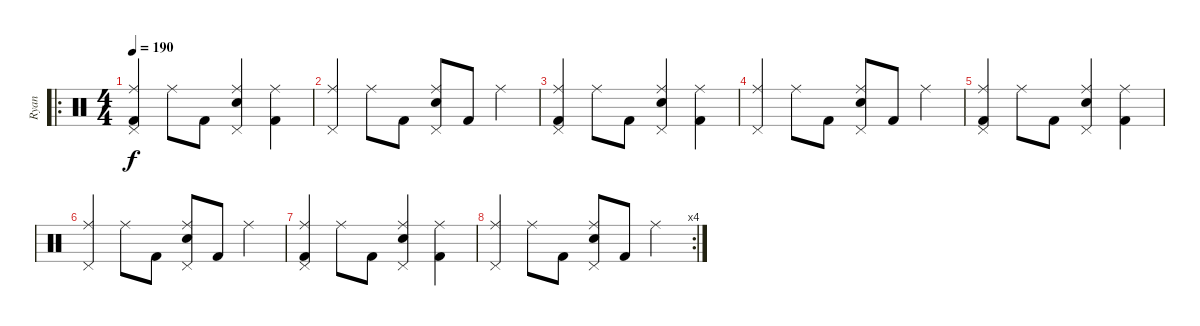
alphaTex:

\track ("Ryan" "Ryan") {instrument percussion}
\staff {score}
\articulation defaults
\ro
\ts (4 4)
\tempo 190
\clef neutral
\ks c
("Pedal Hi-Hat (hit)" "Ride (middle)" "Kick (hit) 2").4{dy f} "Ride (middle)".8 "Kick (hit) 2".8 ("Pedal Hi-Hat (hit)" "Ride (middle)" "Snare (hit) 2").4 ("Ride (middle)" "Kick (hit) 2").4 |
("Pedal Hi-Hat (hit)" "Ride (middle)").4 "Ride (middle)".8 "Kick (hit) 2".8 ("Pedal Hi-Hat (hit)" "Ride (middle)" "Snare (hit) 2").8 "Kick (hit) 2".8 "Ride (middle)".4 |
("Pedal Hi-Hat (hit)" "Ride (middle)" "Kick (hit) 2").4 "Ride (middle)".8 "Kick (hit) 2".8 ("Pedal Hi-Hat (hit)" "Ride (middle)" "Snare (hit) 2").4 ("Ride (middle)" "Kick (hit) 2").4 |
("Pedal Hi-Hat (hit)" "Ride (middle)").4 "Ride (middle)".8 "Kick (hit) 2".8 ("Pedal Hi-Hat (hit)" "Ride (middle)" "Snare (hit) 2").8 "Kick (hit) 2".8 "Ride (middle)".4 |
("Pedal Hi-Hat (hit)" "Ride (middle)" "Kick (hit) 2").4 "Ride (middle)".8 "Kick (hit) 2".8 ("Pedal Hi-Hat (hit)" "Ride (middle)" "Snare (hit) 2").4 ("Ride (middle)" "Kick (hit) 2").4 |
("Pedal Hi-Hat (hit)" "Ride (middle)").4 "Ride (middle)".8 "Kick (hit) 2".8 ("Pedal Hi-Hat (hit)" "Ride (middle)" "Snare (hit) 2").8 "Kick (hit) 2".8 "Ride (middle)".4 |
("Pedal Hi-Hat (hit)" "Ride (middle)" "Kick (hit) 2").4 "Ride (middle)".8 "Kick (hit) 2".8 ("Pedal Hi-Hat (hit)" "Ride (middle)" "Snare (hit) 2").4 ("Ride (middle)" "Kick (hit) 2").4 |
\rc 4
("Pedal Hi-Hat (hit)" "Ride (middle)").4 "Ride (middle)".8 "Kick (hit) 2".8 ("Pedal Hi-Hat (hit)" "Ride (middle)" "Snare (hit) 2").8 "Kick (hit) 2".8 "Ride (middle)".4
